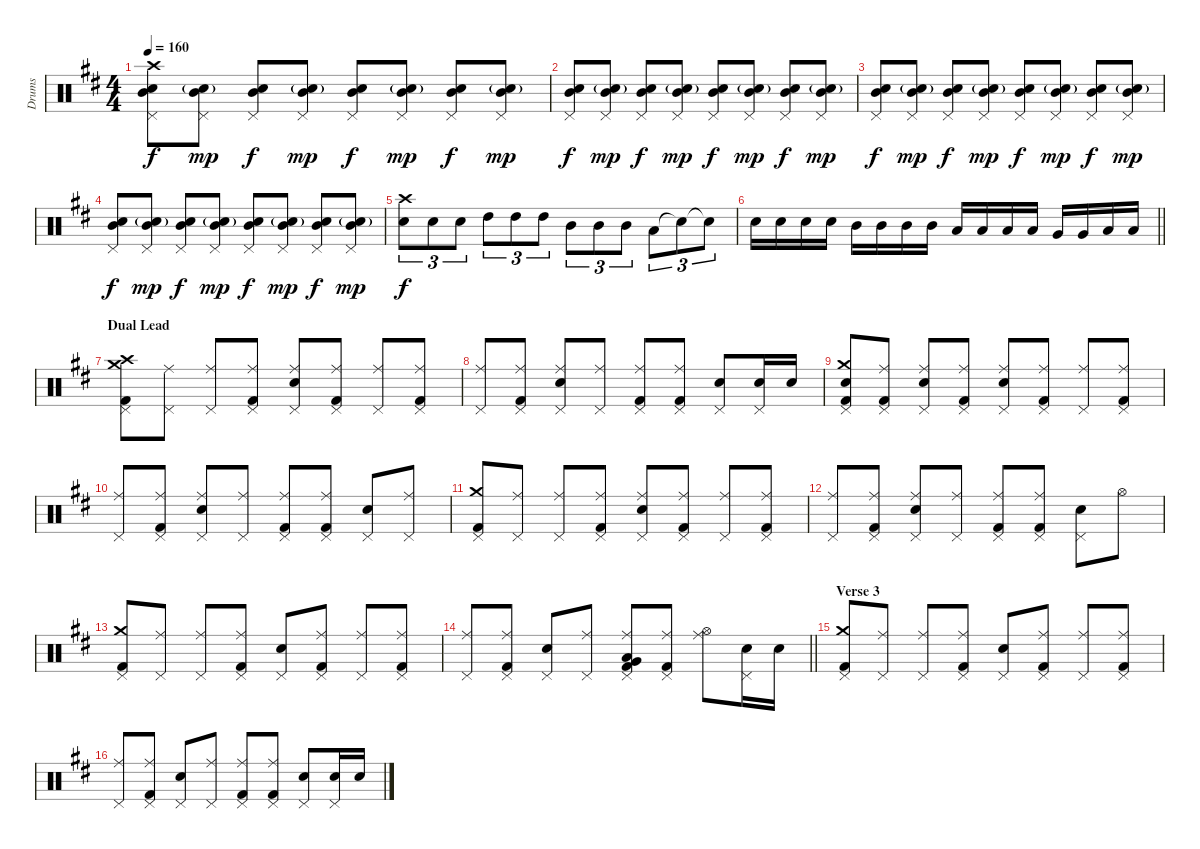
\track ("Drums" "Drums") {instrument percussion}
\staff {score}
\articulation defaults
\ts (4 4)
\tempo 160
\clef neutral
\ks d
("Crash high (hit)" "Mid Tom (hit)" "Electric Snare (hit)" "Pedal Hi-Hat (hit)").8{dy f} ("Mid Tom (hit)" "Electric Snare (hit)"{g} "Pedal Hi-Hat (hit)").8{dy mp} ("Mid Tom (hit)" "Electric Snare (hit)" "Pedal Hi-Hat (hit)").8{dy f} ("Mid Tom (hit)" "Electric Snare (hit)"{g} "Pedal Hi-Hat (hit)").8{dy mp} ("Mid Tom (hit)" "Electric Snare (hit)" "Pedal Hi-Hat (hit)").8{dy f} ("Mid Tom (hit)" "Electric Snare (hit)"{g} "Pedal Hi-Hat (hit)").8{dy mp} ("Mid Tom (hit)" "Electric Snare (hit)" "Pedal Hi-Hat (hit)").8{dy f} ("Mid Tom (hit)" "Electric Snare (hit)"{g} "Pedal Hi-Hat (hit)").8{dy mp} |
("Mid Tom (hit)" "Electric Snare (hit)" "Pedal Hi-Hat (hit)").8{dy f} ("Mid Tom (hit)" "Electric Snare (hit)"{g} "Pedal Hi-Hat (hit)").8{dy mp} ("Mid Tom (hit)" "Electric Snare (hit)" "Pedal Hi-Hat (hit)").8{dy f} ("Mid Tom (hit)" "Electric Snare (hit)"{g} "Pedal Hi-Hat (hit)").8{dy mp} ("Mid Tom (hit)" "Electric Snare (hit)" "Pedal Hi-Hat (hit)").8{dy f} ("Mid Tom (hit)" "Electric Snare (hit)"{g} "Pedal Hi-Hat (hit)").8{dy mp} ("Mid Tom (hit)" "Electric Snare (hit)" "Pedal Hi-Hat (hit)").8{dy f} ("Mid Tom (hit)" "Electric Snare (hit)"{g} "Pedal Hi-Hat (hit)").8{dy mp} |
("Mid Tom (hit)" "Electric Snare (hit)" "Pedal Hi-Hat (hit)").8{dy f} ("Mid Tom (hit)" "Electric Snare (hit)"{g} "Pedal Hi-Hat (hit)").8{dy mp} ("Mid Tom (hit)" "Electric Snare (hit)" "Pedal Hi-Hat (hit)").8{dy f} ("Mid Tom (hit)" "Electric Snare (hit)"{g} "Pedal Hi-Hat (hit)").8{dy mp} ("Mid Tom (hit)" "Electric Snare (hit)" "Pedal Hi-Hat (hit)").8{dy f} ("Mid Tom (hit)" "Electric Snare (hit)"{g} "Pedal Hi-Hat (hit)").8{dy mp} ("Mid Tom (hit)" "Electric Snare (hit)" "Pedal Hi-Hat (hit)").8{dy f} ("Mid Tom (hit)" "Electric Snare (hit)"{g} "Pedal Hi-Hat (hit)").8{dy mp} |
("Mid Tom (hit)" "Electric Snare (hit)" "Pedal Hi-Hat (hit)").8{dy f} ("Mid Tom (hit)" "Electric Snare (hit)"{g} "Pedal Hi-Hat (hit)").8{dy mp} ("Mid Tom (hit)" "Electric Snare (hit)" "Pedal Hi-Hat (hit)").8{dy f} ("Mid Tom (hit)" "Electric Snare (hit)"{g} "Pedal Hi-Hat (hit)").8{dy mp} ("Mid Tom (hit)" "Electric Snare (hit)" "Pedal Hi-Hat (hit)").8{dy f} ("Mid Tom (hit)" "Electric Snare (hit)"{g} "Pedal Hi-Hat (hit)").8{dy mp} ("Mid Tom (hit)" "Electric Snare (hit)" "Pedal Hi-Hat (hit)").8{dy f} ("Mid Tom (hit)" "Electric Snare (hit)"{g} "Pedal Hi-Hat (hit)").8{dy mp} |
("Crash high (hit)" "Electric Snare (hit)").8{tu (3 2) dy f} "Electric Snare (hit)".8{tu (3 2)} "Electric Snare (hit)".8{tu (3 2)} "High Tom (hit)".8{tu (3 2)} "High Tom (hit)".8{tu (3 2)} "High Tom (hit)".8{tu (3 2)} "Mid Tom (hit)".8{tu (3 2)} "Mid Tom (hit)".8{tu (3 2)} "Mid Tom (hit)".8{tu (3 2)} "Low Tom (hit)".8{tu (3 2)} "Electric Snare (hit)"{t}.8{tu (3 2)} "Electric Snare (hit)"{t}.8{tu (3 2)} |
\barLineRight lightlight "Electric Snare (hit)".16 "Electric Snare (hit)".16 "Electric Snare (hit)".16 "Electric Snare (hit)".16 "Mid Tom (hit)".16 "Mid Tom (hit)".16 "Mid Tom (hit)".16 "Mid Tom (hit)".16 "Low Tom (hit)".16 "Low Tom (hit)".16 "Low Tom (hit)".16 "Low Tom (hit)".16 "Very Low Tom (hit)".16 "Very Low Tom (hit)".16 "Low Floor Tom (hit)".16 "Low Floor Tom (hit)".16
|
\section ("" "Dual Lead")
("Crash medium (hit)" "Crash high (hit)" "Pedal Hi-Hat (hit)" "Kick (hit) 2").8 ("Ride (middle)" "Pedal Hi-Hat (hit)").8 ("Ride (middle)" "Pedal Hi-Hat (hit)").8 ("Ride (middle)" "Pedal Hi-Hat (hit)" "Kick (hit) 2").8 ("Ride (middle)" "Electric Snare (hit)" "Pedal Hi-Hat (hit)").8 ("Ride (middle)" "Pedal Hi-Hat (hit)" "Kick (hit) 2").8 ("Ride (middle)" "Pedal Hi-Hat (hit)").8 ("Ride (middle)" "Pedal Hi-Hat (hit)" "Kick (hit) 2").8 |
("Ride (middle)" "Pedal Hi-Hat (hit)").8 ("Ride (middle)" "Pedal Hi-Hat (hit)" "Kick (hit) 2").8 ("Ride (middle)" "Electric Snare (hit)" "Pedal Hi-Hat (hit)").8 ("Ride (middle)" "Pedal Hi-Hat (hit)").8 ("Ride (middle)" "Pedal Hi-Hat (hit)" "Kick (hit) 2").8 ("Ride (middle)" "Pedal Hi-Hat (hit)" "Kick (hit) 2").8 ("Snare (hit) 2" "Pedal Hi-Hat (hit)").8 ("Snare (hit) 2" "Pedal Hi-Hat (hit)").16 "Snare (hit) 2".16 |
("Crash medium (hit)" "Electric Snare (hit)" "Pedal Hi-Hat (hit)" "Kick (hit) 2").8 ("Ride (middle)" "Pedal Hi-Hat (hit)" "Kick (hit) 2").8 ("Ride (middle)" "Electric Snare (hit)" "Pedal Hi-Hat (hit)").8 ("Ride (middle)" "Pedal Hi-Hat (hit)" "Kick (hit) 2").8 ("Ride (middle)" "Electric Snare (hit)" "Pedal Hi-Hat (hit)").8 ("Ride (middle)" "Pedal Hi-Hat (hit)" "Kick (hit) 2").8 ("Ride (middle)" "Pedal Hi-Hat (hit)").8 ("Ride (middle)" "Pedal Hi-Hat (hit)" "Kick (hit) 2").8 |
("Ride (middle)" "Pedal Hi-Hat (hit)").8 ("Ride (middle)" "Pedal Hi-Hat (hit)" "Kick (hit) 2").8 ("Ride (middle)" "Electric Snare (hit)" "Pedal Hi-Hat (hit)").8 ("Ride (middle)" "Pedal Hi-Hat (hit)").8 ("Ride (middle)" "Pedal Hi-Hat (hit)" "Kick (hit) 2").8 ("Ride (middle)" "Pedal Hi-Hat (hit)" "Kick (hit) 2").8 ("Electric Snare (hit)" "Pedal Hi-Hat (hit)").8 ("Ride (middle)" "Pedal Hi-Hat (hit)").8 |
("Crash medium (hit)" "Pedal Hi-Hat (hit)" "Kick (hit) 2").8 ("Ride (middle)" "Pedal Hi-Hat (hit)").8 ("Ride (middle)" "Pedal Hi-Hat (hit)").8 ("Ride (middle)" "Pedal Hi-Hat (hit)" "Kick (hit) 2").8 ("Ride (middle)" "Electric Snare (hit)" "Pedal Hi-Hat (hit)").8 ("Ride (middle)" "Pedal Hi-Hat (hit)" "Kick (hit) 2").8 ("Ride (middle)" "Pedal Hi-Hat (hit)").8 ("Ride (middle)" "Pedal Hi-Hat (hit)" "Kick (hit) 2").8 |
("Ride (middle)" "Pedal Hi-Hat (hit)").8 ("Ride (middle)" "Pedal Hi-Hat (hit)" "Kick (hit) 2").8 ("Ride (middle)" "Electric Snare (hit)" "Pedal Hi-Hat (hit)").8 ("Ride (middle)" "Pedal Hi-Hat (hit)").8 ("Ride (middle)" "Pedal Hi-Hat (hit)" "Kick (hit) 2").8 ("Ride (middle)" "Pedal Hi-Hat (hit)" "Kick (hit) 2").8 ("Electric Snare (hit)" "Pedal Hi-Hat (hit)").8 "Hi-Hat (open)".8 |
("Crash medium (hit)" "Pedal Hi-Hat (hit)" "Kick (hit) 2").8 ("Ride (middle)" "Pedal Hi-Hat (hit)").8 ("Ride (middle)" "Pedal Hi-Hat (hit)").8 ("Ride (middle)" "Pedal Hi-Hat (hit)" "Kick (hit) 2").8 ("Electric Snare (hit)" "Pedal Hi-Hat (hit)").8 ("Ride (middle)" "Pedal Hi-Hat (hit)" "Kick (hit) 2").8 ("Ride (middle)" "Pedal Hi-Hat (hit)").8 ("Ride (middle)" "Pedal Hi-Hat (hit)" "Kick (hit) 2").8 |
\barLineRight lightlight
("Ride (middle)" "Pedal Hi-Hat (hit)").8 ("Ride (middle)" "Pedal Hi-Hat (hit)" "Kick (hit) 2").8 ("Electric Snare (hit)" "Pedal Hi-Hat (hit)").8 ("Ride (middle)" "Pedal Hi-Hat (hit)").8 ("Ride (middle)" "Very Low Tom (hit)" "Pedal Hi-Hat (hit)" "Low Floor Tom (hit)" "Kick (hit) 2").8 ("Ride (middle)" "Pedal Hi-Hat (hit)" "Kick (hit) 2").8 ("Ride (middle)" "Hi-Hat (open)").8 ("Electric Snare (hit)" "Pedal Hi-Hat (hit)").16 "Electric Snare (hit)".16 |
\section ("" "Verse 3")
("Crash medium (hit)" "Pedal Hi-Hat (hit)" "Kick (hit) 2").8 ("Ride (middle)" "Pedal Hi-Hat (hit)").8 ("Ride (middle)" "Pedal Hi-Hat (hit)").8 ("Ride (middle)" "Pedal Hi-Hat (hit)" "Kick (hit) 2").8 ("Electric Snare (hit)" "Pedal Hi-Hat (hit)").8 ("Ride (middle)" "Pedal Hi-Hat (hit)" "Kick (hit) 2").8 ("Ride (middle)" "Pedal Hi-Hat (hit)").8 ("Ride (middle)" "Pedal Hi-Hat (hit)" "Kick (hit) 2").8 |
("Ride (middle)" "Pedal Hi-Hat (hit)").8 ("Ride (middle)" "Pedal Hi-Hat (hit)" "Kick (hit) 2").8 ("Electric Snare (hit)" "Pedal Hi-Hat (hit)").8 ("Ride (middle)" "Pedal Hi-Hat (hit)").8 ("Ride (middle)" "Pedal Hi-Hat (hit)" "Kick (hit) 2").8 ("Ride (middle)" "Pedal Hi-Hat (hit)" "Kick (hit) 2").8 ("Electric Snare (hit)" "Pedal Hi-Hat (hit)").8 ("Snare (hit) 2" "Pedal Hi-Hat (hit)").16 "Snare (hit) 2".16
